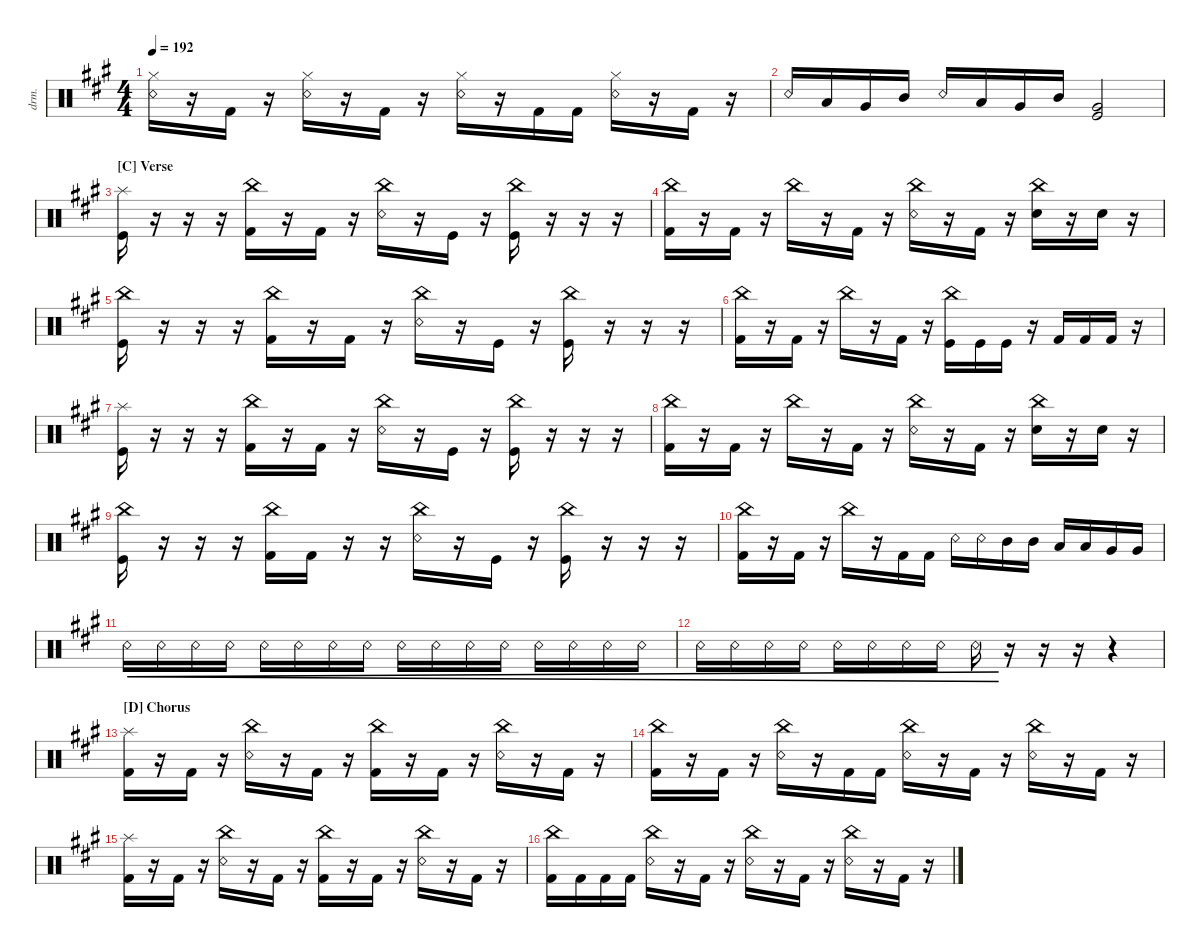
\defaultSystemsLayout 4
\hideDynamics
\bracketExtendMode nobrackets
\otherSystemsTrackNameOrientation horizontal
\track ("Drumkit" "drm.") {instrument percussion}
\staff {score}
\articulation defaults
\ts (4 4)
\tempo 192
\clef neutral
\ks a
("Snare (rim shot)"{acc forcenatural} "Hi-Hat (closed)"{acc forcenatural}).16{dy ff beam Down} r.16{beam Down} "Kick (hit) 2"{acc forcenatural}.16{beam Down} r.16{beam Down} ("Snare (rim shot)"{acc forcenatural} "Hi-Hat (closed)"{acc forcenatural}).16{beam Down} r.16{beam Down} "Kick (hit) 2"{acc forcenatural}.16{beam Down} r.16{beam Down} ("Snare (rim shot)"{acc forcenatural} "Hi-Hat (closed)"{acc forcenatural}).16{beam Down} r.16{beam Down} "Kick (hit) 2"{acc forcenatural}.16{beam Down} "Kick (hit) 2"{acc forcenatural}.16{beam Down} ("Snare (rim shot)"{acc forcenatural} "Hi-Hat (closed)"{acc forcenatural}).16{beam Down} r.16{beam Down} "Kick (hit) 2"{acc forcenatural}.16{beam Down} r.16{beam Down} |
"Snare (rim shot)"{acc forcenatural}.16{beam Up} "Low Tom (hit)"{acc forcenatural}.16{beam Up} "Very Low Tom (hit)"{acc forcenatural}.16{beam Up} "Mid Tom (hit)"{acc forcenatural}.16{beam Up} "Snare (rim shot)"{acc forcenatural}.16{beam Up} "Low Tom (hit)"{acc forcenatural}.16{beam Up} "Very Low Tom (hit)"{acc forcenatural}.16{beam Up} "Mid Tom (hit)"{acc forcenatural}.16{beam Up} ("Very Low Tom (hit)"{acc forcenatural} "Kick (hit)"{acc forcenatural}).2{beam Up} |
\section ("C" "Verse")
("Kick (hit)"{acc forcenatural} "Splash (hit)"{acc forcenatural}).16{beam Down} r.16{beam Down} r.16{beam Down} r.16{beam Down} ("China (hit)"{acc forcenatural} "Kick (hit) 2"{acc forcenatural}).16{beam Down} r.16{beam Down} "Kick (hit) 2"{acc forcenatural}.16{beam Down} r.16{beam Down} ("China (hit)"{acc forcenatural} "Snare (rim shot)"{acc forcenatural}).16{beam Down} r.16{beam Down} "Kick (hit)"{acc forcenatural}.16{beam Down} r.16{beam Down} ("Kick (hit)"{acc forcenatural} "China (hit)"{acc forcenatural}).16{beam Down} r.16{beam Down} r.16{beam Down} r.16{beam Down} |
("Kick (hit) 2"{acc forcenatural} "China (hit)"{acc forcenatural}).16{beam Down} r.16{beam Down} "Kick (hit) 2"{acc forcenatural}.16{beam Down} r.16{beam Down} "China (hit)"{acc forcenatural}.16{beam Down} r.16{beam Down} "Kick (hit) 2"{acc forcenatural}.16{beam Down} r.16{beam Down} ("China (hit)"{acc forcenatural} "Snare (rim shot)"{acc forcenatural}).16{beam Down} r.16{beam Down} "Kick (hit) 2"{acc forcenatural}.16{beam Down} r.16{beam Down} ("China (hit)"{acc forcenatural} "Snare (hit) 2"{acc forcenatural}).16{beam Down} r.16{beam Down} "Snare (hit) 2"{acc forcenatural}.16{beam Down} r.16{beam Down} |
("China (hit)"{acc forcenatural} "Kick (hit)"{acc forcenatural}).16{beam Down} r.16{beam Down} r.16{beam Down} r.16{beam Down} ("China (hit)"{acc forcenatural} "Kick (hit) 2"{acc forcenatural}).16{beam Down} r.16{beam Down} "Kick (hit) 2"{acc forcenatural}.16{beam Down} r.16{beam Down} ("China (hit)"{acc forcenatural} "Snare (rim shot)"{acc forcenatural}).16{beam Down} r.16{beam Down} "Kick (hit)"{acc forcenatural}.16{beam Down} r.16{beam Down} ("Kick (hit)"{acc forcenatural} "China (hit)"{acc forcenatural}).16{beam Down} r.16{beam Down} r.16{beam Down} r.16{beam Down} |
("Kick (hit) 2"{acc forcenatural} "China (hit)"{acc forcenatural}).16{beam Down} r.16{beam Down} "Kick (hit) 2"{acc forcenatural}.16{beam Down} r.16{beam Down} "China (hit)"{acc forcenatural}.16{beam Down} r.16{beam Down} "Kick (hit) 2"{acc forcenatural}.16{beam Down} r.16{beam Down} ("Kick (hit)"{acc forcenatural} "China (hit)"{acc forcenatural}).16{beam Down} "Kick (hit)"{acc forcenatural}.16{beam Down} "Kick (hit)"{acc forcenatural}.16{beam Down} r.16{beam Down} "Kick (hit) 2"{acc forcenatural}.16{beam Up} "Kick (hit) 2"{acc forcenatural}.16{beam Up} "Kick (hit) 2"{acc forcenatural}.16{beam Up} r.16{beam Up} |
("Kick (hit)"{acc forcenatural} "Splash (hit)"{acc forcenatural}).16{beam Down} r.16{beam Down} r.16{beam Down} r.16{beam Down} ("China (hit)"{acc forcenatural} "Kick (hit) 2"{acc forcenatural}).16{beam Down} r.16{beam Down} "Kick (hit) 2"{acc forcenatural}.16{beam Down} r.16{beam Down} ("China (hit)"{acc forcenatural} "Snare (rim shot)"{acc forcenatural}).16{beam Down} r.16{beam Down} "Kick (hit)"{acc forcenatural}.16{beam Down} r.16{beam Down} ("Kick (hit)"{acc forcenatural} "China (hit)"{acc forcenatural}).16{beam Down} r.16{beam Down} r.16{beam Down} r.16{beam Down} |
("Kick (hit) 2"{acc forcenatural} "China (hit)"{acc forcenatural}).16{beam Down} r.16{beam Down} "Kick (hit) 2"{acc forcenatural}.16{beam Down} r.16{beam Down} "China (hit)"{acc forcenatural}.16{beam Down} r.16{beam Down} "Kick (hit) 2"{acc forcenatural}.16{beam Down} r.16{beam Down} ("China (hit)"{acc forcenatural} "Snare (rim shot)"{acc forcenatural}).16{beam Down} r.16{beam Down} "Kick (hit) 2"{acc forcenatural}.16{beam Down} r.16{beam Down} ("China (hit)"{acc forcenatural} "Snare (hit) 2"{acc forcenatural}).16{beam Down} r.16{beam Down} "Snare (hit) 2"{acc forcenatural}.16{beam Down} r.16{beam Down} |
("China (hit)"{acc forcenatural} "Kick (hit)"{acc forcenatural}).16{beam Down} r.16{beam Down} r.16{beam Down} r.16{beam Down} ("China (hit)"{acc forcenatural} "Kick (hit) 2"{acc forcenatural}).16{beam Down} "Kick (hit) 2"{acc forcenatural}.16{beam Down} r.16{beam Down} r.16{beam Down} ("China (hit)"{acc forcenatural} "Snare (rim shot)"{acc forcenatural}).16{beam Down} r.16{beam Down} "Kick (hit)"{acc forcenatural}.16{beam Down} r.16{beam Down} ("Kick (hit)"{acc forcenatural} "China (hit)"{acc forcenatural}).16{beam Down} r.16{beam Down} r.16{beam Down} r.16{beam Down} |
("Kick (hit) 2"{acc forcenatural} "China (hit)"{acc forcenatural}).16{beam Down} r.16{beam Down} "Kick (hit) 2"{acc forcenatural}.16{beam Down} r.16{beam Down} "China (hit)"{acc forcenatural}.16{beam Down} r.16{beam Down} "Kick (hit) 2"{acc forcenatural}.16{beam Down} "Kick (hit) 2"{acc forcenatural}.16{beam Down} "Snare (rim shot)"{acc forcenatural}.16{beam Down} "Snare (rim shot)"{acc forcenatural}.16{beam Down} "Mid Tom (hit)"{acc forcenatural}.16{beam Down} "Mid Tom (hit)"{acc forcenatural}.16{beam Down} "Low Tom (hit)"{acc forcenatural}.16{beam Up} "Low Tom (hit)"{acc forcenatural}.16{beam Up} "Very Low Tom (hit)"{acc forcenatural}.16{beam Up} "Very Low Tom (hit)"{acc forcenatural}.16{beam Up} |
"Snare (rim shot)"{acc forcenatural}.16{cre dy pp beam Down} "Snare (rim shot)"{acc forcenatural}.16{cre beam Down} "Snare (rim shot)"{acc forcenatural}.16{cre beam Down} "Snare (rim shot)"{acc forcenatural}.16{cre beam Down} "Snare (rim shot)"{acc forcenatural}.16{cre dy p beam Down} "Snare (rim shot)"{acc forcenatural}.16{cre beam Down} "Snare (rim shot)"{acc forcenatural}.16{cre beam Down} "Snare (rim shot)"{acc forcenatural}.16{cre beam Down} "Snare (rim shot)"{acc forcenatural}.16{cre dy mp beam Down} "Snare (rim shot)"{acc forcenatural}.16{cre beam Down} "Snare (rim shot)"{acc forcenatural}.16{cre beam Down} "Snare (rim shot)"{acc forcenatural}.16{cre beam Down} "Snare (rim shot)"{acc forcenatural}.16{cre dy mf beam Down} "Snare (rim shot)"{acc forcenatural}.16{cre beam Down} "Snare (rim shot)"{acc forcenatural}.16{cre beam Down} "Snare (rim shot)"{acc forcenatural}.16{cre beam Down} |
"Snare (rim shot)"{acc forcenatural}.16{cre dy f beam Down} "Snare (rim shot)"{acc forcenatural}.16{cre beam Down} "Snare (rim shot)"{acc forcenatural}.16{cre beam Down} "Snare (rim shot)"{acc forcenatural}.16{cre beam Down} "Snare (rim shot)"{acc forcenatural}.16{cre dy ff beam Down} "Snare (rim shot)"{acc forcenatural}.16{cre beam Down} "Snare (rim shot)"{acc forcenatural}.16{cre beam Down} "Snare (rim shot)"{acc forcenatural}.16{cre beam Down} "Snare (rim shot)"{acc forcenatural}.16{cre beam Down} r.16{beam Down} r.16{beam Down} r.16{beam Down} r.4{beam Down} |
\section ("D" "Chorus")
("Kick (hit) 2"{acc forcenatural} "Splash (hit)"{acc forcenatural}).16{beam Down} r.16{beam Down} "Kick (hit) 2"{acc forcenatural}.16{beam Down} r.16{beam Down} ("China (hit)"{acc forcenatural} "Snare (rim shot)"{acc forcenatural}).16{beam Down} r.16{beam Down} "Kick (hit) 2"{acc forcenatural}.16{beam Down} r.16{beam Down} ("China (hit)"{acc forcenatural} "Kick (hit) 2"{acc forcenatural}).16{beam Down} r.16{beam Down} "Kick (hit) 2"{acc forcenatural}.16{beam Down} r.16{beam Down} ("China (hit)"{acc forcenatural} "Snare (rim shot)"{acc forcenatural}).16{beam Down} r.16{beam Down} "Kick (hit) 2"{acc forcenatural}.16{beam Down} r.16{beam Down} |
("Kick (hit) 2"{acc forcenatural} "China (hit)"{acc forcenatural}).16{beam Down} r.16{beam Down} "Kick (hit) 2"{acc forcenatural}.16{beam Down} r.16{beam Down} ("China (hit)"{acc forcenatural} "Snare (rim shot)"{acc forcenatural}).16{beam Down} r.16{beam Down} "Kick (hit) 2"{acc forcenatural}.16{beam Down} "Kick (hit) 2"{acc forcenatural}.16{beam Down} ("China (hit)"{acc forcenatural} "Snare (rim shot)"{acc forcenatural}).16{beam Down} r.16{beam Down} "Kick (hit) 2"{acc forcenatural}.16{beam Down} r.16{beam Down} ("China (hit)"{acc forcenatural} "Snare (rim shot)"{acc forcenatural}).16{beam Down} r.16{beam Down} "Kick (hit) 2"{acc forcenatural}.16{beam Down} r.16{beam Down} |
("Kick (hit) 2"{acc forcenatural} "Splash (hit)"{acc forcenatural}).16{beam Down} r.16{beam Down} "Kick (hit) 2"{acc forcenatural}.16{beam Down} r.16{beam Down} ("China (hit)"{acc forcenatural} "Snare (rim shot)"{acc forcenatural}).16{beam Down} r.16{beam Down} "Kick (hit) 2"{acc forcenatural}.16{beam Down} r.16{beam Down} ("China (hit)"{acc forcenatural} "Kick (hit) 2"{acc forcenatural}).16{beam Down} r.16{beam Down} "Kick (hit) 2"{acc forcenatural}.16{beam Down} r.16{beam Down} ("China (hit)"{acc forcenatural} "Snare (rim shot)"{acc forcenatural}).16{beam Down} r.16{beam Down} "Kick (hit) 2"{acc forcenatural}.16{beam Down} r.16{beam Down} |
("Kick (hit) 2"{acc forcenatural} "China (hit)"{acc forcenatural}).16{beam Down} "Kick (hit) 2"{acc forcenatural}.16{beam Down} "Kick (hit) 2"{acc forcenatural}.16{beam Down} "Kick (hit) 2"{acc forcenatural}.16{beam Down} ("China (hit)"{acc forcenatural} "Snare (rim shot)"{acc forcenatural}).16{beam Down} r.16{beam Down} "Kick (hit) 2"{acc forcenatural}.16{beam Down} r.16{beam Down} ("China (hit)"{acc forcenatural} "Snare (rim shot)"{acc forcenatural}).16{beam Down} r.16{beam Down} "Kick (hit) 2"{acc forcenatural}.16{beam Down} r.16{beam Down} ("China (hit)"{acc forcenatural} "Snare (rim shot)"{acc forcenatural}).16{beam Down} r.16{beam Down} "Kick (hit) 2"{acc forcenatural}.16{beam Down} r.16{beam Down}
